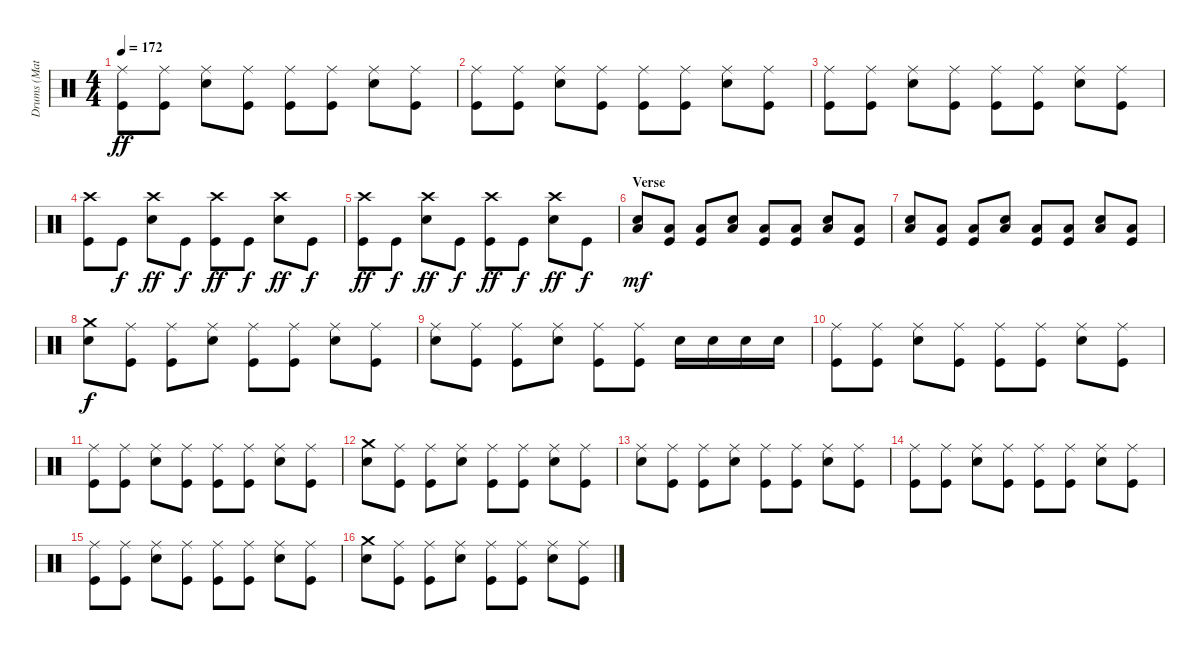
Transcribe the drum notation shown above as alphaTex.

\track ("Drums (Matt)" "Drums (Mat") {instrument percussion}
\staff {score}
\articulation defaults
\ts (4 4)
\tempo 172
\clef neutral
\ks c
("Ride (middle)" "Kick (hit)").8{dy ff} ("Ride (middle)" "Kick (hit)").8 ("Ride (middle)" "Electric Snare (hit)").8 ("Ride (middle)" "Kick (hit)").8 ("Ride (middle)" "Kick (hit)").8 ("Ride (middle)" "Kick (hit)").8 ("Ride (middle)" "Electric Snare (hit)").8 ("Ride (middle)" "Kick (hit)").8 |
("Ride (middle)" "Kick (hit)").8 ("Ride (middle)" "Kick (hit)").8 ("Ride (middle)" "Electric Snare (hit)").8 ("Ride (middle)" "Kick (hit)").8 ("Ride (middle)" "Kick (hit)").8 ("Ride (middle)" "Kick (hit)").8 ("Ride (middle)" "Electric Snare (hit)").8 ("Ride (middle)" "Kick (hit)").8 |
("Ride (middle)" "Kick (hit)").8 ("Ride (middle)" "Kick (hit)").8 ("Ride (middle)" "Electric Snare (hit)").8 ("Ride (middle)" "Kick (hit)").8 ("Ride (middle)" "Kick (hit)").8 ("Ride (middle)" "Kick (hit)").8 ("Ride (middle)" "Electric Snare (hit)").8 ("Ride (middle)" "Kick (hit)").8 |
("Crash high (hit)" "Kick (hit)").8 "Kick (hit)".8{dy f} ("Crash high (hit)" "Electric Snare (hit)").8{dy ff} "Kick (hit)".8{dy f} ("Crash high (hit)" "Kick (hit)").8{dy ff} "Kick (hit)".8{dy f} ("Crash high (hit)" "Electric Snare (hit)").8{dy ff} "Kick (hit)".8{dy f} |
("Crash high (hit)" "Kick (hit)").8{dy ff} "Kick (hit)".8{dy f} ("Crash high (hit)" "Electric Snare (hit)").8{dy ff} "Kick (hit)".8{dy f} ("Crash high (hit)" "Kick (hit)").8{dy ff} "Kick (hit)".8{dy f} ("Crash high (hit)" "Electric Snare (hit)").8{dy ff} "Kick (hit)".8{dy f} |
\section ("" "Verse")
("Electric Snare (hit)" "Low Tom (hit)").8{dy mf} ("Low Tom (hit)" "Kick (hit)").8 ("Low Tom (hit)" "Kick (hit)").8 ("Electric Snare (hit)" "Low Tom (hit)").8 ("Low Tom (hit)" "Kick (hit)").8 ("Low Tom (hit)" "Kick (hit)").8 ("Electric Snare (hit)" "Low Tom (hit)").8 ("Low Tom (hit)" "Kick (hit)").8 |
("Electric Snare (hit)" "Low Tom (hit)").8 ("Low Tom (hit)" "Kick (hit)").8 ("Low Tom (hit)" "Kick (hit)").8 ("Electric Snare (hit)" "Low Tom (hit)").8 ("Low Tom (hit)" "Kick (hit)").8 ("Low Tom (hit)" "Kick (hit)").8 ("Electric Snare (hit)" "Low Tom (hit)").8 ("Low Tom (hit)" "Kick (hit)").8 |
("Crash medium (hit)" "Electric Snare (hit)").8{dy f} ("Ride (middle)" "Kick (hit)").8 ("Ride (middle)" "Kick (hit)").8 ("Ride (middle)" "Electric Snare (hit)").8 ("Ride (middle)" "Kick (hit)").8 ("Ride (middle)" "Kick (hit)").8 ("Ride (middle)" "Electric Snare (hit)").8 ("Ride (middle)" "Kick (hit)").8 |
("Ride (middle)" "Electric Snare (hit)").8 ("Ride (middle)" "Kick (hit)").8 ("Ride (middle)" "Kick (hit)").8 ("Ride (middle)" "Electric Snare (hit)").8 ("Ride (middle)" "Kick (hit)").8 ("Ride (middle)" "Kick (hit)").8 "Electric Snare (hit)".16 "Electric Snare (hit)".16 "Electric Snare (hit)".16 "Electric Snare (hit)".16 |
("Ride (middle)" "Kick (hit)").8 ("Ride (middle)" "Kick (hit)").8 ("Ride (middle)" "Electric Snare (hit)").8 ("Ride (middle)" "Kick (hit)").8 ("Ride (middle)" "Kick (hit)").8 ("Ride (middle)" "Kick (hit)").8 ("Ride (middle)" "Electric Snare (hit)").8 ("Ride (middle)" "Kick (hit)").8 |
("Ride (middle)" "Kick (hit)").8 ("Ride (middle)" "Kick (hit)").8 ("Ride (middle)" "Electric Snare (hit)").8 ("Ride (middle)" "Kick (hit)").8 ("Ride (middle)" "Kick (hit)").8 ("Ride (middle)" "Kick (hit)").8 ("Ride (middle)" "Electric Snare (hit)").8 ("Ride (middle)" "Kick (hit)").8 |
("Crash medium (hit)" "Electric Snare (hit)").8 ("Ride (middle)" "Kick (hit)").8 ("Ride (middle)" "Kick (hit)").8 ("Ride (middle)" "Electric Snare (hit)").8 ("Ride (middle)" "Kick (hit)").8 ("Ride (middle)" "Kick (hit)").8 ("Ride (middle)" "Electric Snare (hit)").8 ("Ride (middle)" "Kick (hit)").8 |
("Ride (middle)" "Electric Snare (hit)").8 ("Ride (middle)" "Kick (hit)").8 ("Ride (middle)" "Kick (hit)").8 ("Ride (middle)" "Electric Snare (hit)").8 ("Ride (middle)" "Kick (hit)").8 ("Ride (middle)" "Kick (hit)").8 ("Ride (middle)" "Electric Snare (hit)").8 ("Ride (middle)" "Kick (hit)").8 |
("Ride (middle)" "Kick (hit)").8 ("Ride (middle)" "Kick (hit)").8 ("Ride (middle)" "Electric Snare (hit)").8 ("Ride (middle)" "Kick (hit)").8 ("Ride (middle)" "Kick (hit)").8 ("Ride (middle)" "Kick (hit)").8 ("Ride (middle)" "Electric Snare (hit)").8 ("Ride (middle)" "Kick (hit)").8 |
("Ride (middle)" "Kick (hit)").8 ("Ride (middle)" "Kick (hit)").8 ("Ride (middle)" "Electric Snare (hit)").8 ("Ride (middle)" "Kick (hit)").8 ("Ride (middle)" "Kick (hit)").8 ("Ride (middle)" "Kick (hit)").8 ("Ride (middle)" "Electric Snare (hit)").8 ("Ride (middle)" "Kick (hit)").8 |
("Crash medium (hit)" "Electric Snare (hit)").8 ("Ride (middle)" "Kick (hit)").8 ("Ride (middle)" "Kick (hit)").8 ("Ride (middle)" "Electric Snare (hit)").8 ("Ride (middle)" "Kick (hit)").8 ("Ride (middle)" "Kick (hit)").8 ("Ride (middle)" "Electric Snare (hit)").8 ("Ride (middle)" "Kick (hit)").8
